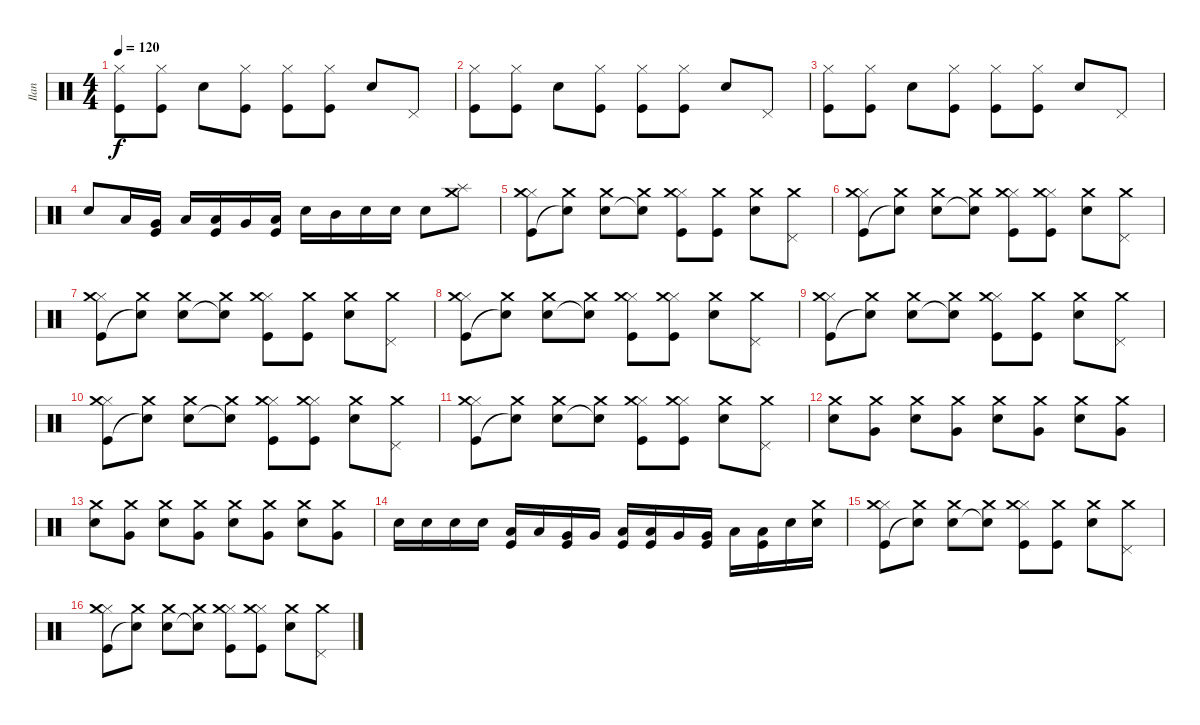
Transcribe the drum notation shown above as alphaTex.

\track ("Ilan" "Ilan") {instrument percussion}
\staff {score}
\articulation defaults
\ts (4 4)
\tempo 120
\clef neutral
\ks c
("Kick (hit)" "Hi-Hat (closed)").8{dy f} ("Kick (hit)" "Hi-Hat (closed)").8 "Electric Snare (hit)".8 ("Kick (hit)" "Hi-Hat (closed)").8 ("Kick (hit)" "Hi-Hat (closed)").8 ("Kick (hit)" "Hi-Hat (closed)").8 "Electric Snare (hit)".8 "Pedal Hi-Hat (hit)".8 |
("Kick (hit)" "Hi-Hat (closed)").8 ("Kick (hit)" "Hi-Hat (closed)").8 "Electric Snare (hit)".8 ("Kick (hit)" "Hi-Hat (closed)").8 ("Kick (hit)" "Hi-Hat (closed)").8 ("Kick (hit)" "Hi-Hat (closed)").8 "Electric Snare (hit)".8 "Pedal Hi-Hat (hit)".8 |
("Kick (hit)" "Hi-Hat (closed)").8 ("Kick (hit)" "Hi-Hat (closed)").8 "Electric Snare (hit)".8 ("Kick (hit)" "Hi-Hat (closed)").8 ("Kick (hit)" "Hi-Hat (closed)").8 ("Kick (hit)" "Hi-Hat (closed)").8 "Electric Snare (hit)".8 "Pedal Hi-Hat (hit)".8 |
"Electric Snare (hit)".8 "Low Floor Tom (hit)".16 ("Very Low Tom (hit)" "Kick (hit)").16 "Low Tom (hit)".16 ("Low Tom (hit)" "Kick (hit)").16 "Very Low Tom (hit)".16 ("Low Floor Tom (hit)" "Kick (hit)").16 "Electric Snare (hit)".16 "Mid Tom (hit)".16 "Electric Snare (hit)".16 "Electric Snare (hit)".16 "Electric Snare (hit)".8 ("Crash medium (hit)" "Splash (hit)").8 |
("Kick (hit)" "Hi-Hat (closed)" "Crash medium (hit)").8 ("Snare (hit)"{t} "Crash medium (hit)").8 ("Electric Snare (hit)" "Crash medium (hit)").8 ("Snare (hit)"{t} "Crash medium (hit)").8 ("Kick (hit)" "Hi-Hat (closed)" "Crash medium (hit)").8 ("Kick (hit)" "Crash medium (hit)").8 ("Electric Snare (hit)" "Crash medium (hit)").8 ("Pedal Hi-Hat (hit)" "Crash medium (hit)").8 |
("Kick (hit)" "Hi-Hat (closed)" "Crash medium (hit)").8 ("Snare (hit)"{t} "Crash medium (hit)").8 ("Electric Snare (hit)" "Crash medium (hit)").8 ("Snare (hit)"{t} "Crash medium (hit)").8 ("Kick (hit)" "Hi-Hat (closed)" "Crash medium (hit)").8 ("Kick (hit)" "Hi-Hat (closed)" "Crash medium (hit)").8 ("Electric Snare (hit)" "Crash medium (hit)").8 ("Pedal Hi-Hat (hit)" "Crash medium (hit)").8 |
("Kick (hit)" "Hi-Hat (closed)" "Crash medium (hit)").8 ("Snare (hit)"{t} "Crash medium (hit)").8 ("Electric Snare (hit)" "Crash medium (hit)").8 ("Snare (hit)"{t} "Crash medium (hit)").8 ("Kick (hit)" "Hi-Hat (closed)" "Crash medium (hit)").8 ("Kick (hit)" "Crash medium (hit)").8 ("Electric Snare (hit)" "Crash medium (hit)").8 ("Pedal Hi-Hat (hit)" "Crash medium (hit)").8 |
("Kick (hit)" "Hi-Hat (closed)" "Crash medium (hit)").8 ("Snare (hit)"{t} "Crash medium (hit)").8 ("Electric Snare (hit)" "Crash medium (hit)").8 ("Snare (hit)"{t} "Crash medium (hit)").8 ("Kick (hit)" "Hi-Hat (closed)" "Crash medium (hit)").8 ("Kick (hit)" "Hi-Hat (closed)" "Crash medium (hit)").8 ("Electric Snare (hit)" "Crash medium (hit)").8 ("Pedal Hi-Hat (hit)" "Crash medium (hit)").8 |
("Kick (hit)" "Hi-Hat (closed)" "Crash medium (hit)").8 ("Snare (hit)"{t} "Crash medium (hit)").8 ("Electric Snare (hit)" "Crash medium (hit)").8 ("Snare (hit)"{t} "Crash medium (hit)").8 ("Kick (hit)" "Hi-Hat (closed)" "Crash medium (hit)").8 ("Kick (hit)" "Crash medium (hit)").8 ("Electric Snare (hit)" "Crash medium (hit)").8 ("Pedal Hi-Hat (hit)" "Crash medium (hit)").8 |
("Kick (hit)" "Hi-Hat (closed)" "Crash medium (hit)").8 ("Snare (hit)"{t} "Crash medium (hit)").8 ("Electric Snare (hit)" "Crash medium (hit)").8 ("Snare (hit)"{t} "Crash medium (hit)").8 ("Kick (hit)" "Hi-Hat (closed)" "Crash medium (hit)").8 ("Kick (hit)" "Hi-Hat (closed)" "Crash medium (hit)").8 ("Electric Snare (hit)" "Crash medium (hit)").8 ("Pedal Hi-Hat (hit)" "Crash medium (hit)").8 |
("Kick (hit)" "Hi-Hat (closed)" "Crash medium (hit)").8 ("Snare (hit)"{t} "Crash medium (hit)").8 ("Electric Snare (hit)" "Crash medium (hit)").8 ("Snare (hit)"{t} "Crash medium (hit)").8 ("Kick (hit)" "Hi-Hat (closed)" "Crash medium (hit)").8 ("Kick (hit)" "Hi-Hat (closed)" "Crash medium (hit)").8 ("Electric Snare (hit)" "Crash medium (hit)").8 ("Pedal Hi-Hat (hit)" "Crash medium (hit)").8 |
("Electric Snare (hit)" "Crash medium (hit)").8 ("Very Low Tom (hit)" "Crash medium (hit)").8 ("Electric Snare (hit)" "Crash medium (hit)").8 ("Very Low Tom (hit)" "Crash medium (hit)").8 ("Electric Snare (hit)" "Crash medium (hit)").8 ("Very Low Tom (hit)" "Crash medium (hit)").8 ("Electric Snare (hit)" "Crash medium (hit)").8 ("Very Low Tom (hit)" "Crash medium (hit)").8 |
("Electric Snare (hit)" "Crash medium (hit)").8 ("Very Low Tom (hit)" "Crash medium (hit)").8 ("Electric Snare (hit)" "Crash medium (hit)").8 ("Very Low Tom (hit)" "Crash medium (hit)").8 ("Electric Snare (hit)" "Crash medium (hit)").8 ("Very Low Tom (hit)" "Crash medium (hit)").8 ("Electric Snare (hit)" "Crash medium (hit)").8 ("Very Low Tom (hit)" "Crash medium (hit)").8 |
"Electric Snare (hit)".16 "Electric Snare (hit)".16 "Electric Snare (hit)".16 "Electric Snare (hit)".16 ("Low Floor Tom (hit)" "Kick (hit)").16 "Low Floor Tom (hit)".16 ("Very Low Tom (hit)" "Kick (hit)").16 "Very Low Tom (hit)".16 ("Low Tom (hit)" "Kick (hit)").16 ("Low Tom (hit)" "Kick (hit)").16 "Very Low Tom (hit)".16 ("Very Low Tom (hit)" "Kick (hit)").16 "Low Floor Tom (hit)".16 ("Low Floor Tom (hit)" "Kick (hit)").16 "Electric Snare (hit)".16 ("Electric Snare (hit)" "Crash medium (hit)").16 |
("Kick (hit)" "Hi-Hat (closed)" "Crash medium (hit)").8 ("Snare (hit)"{t} "Crash medium (hit)").8 ("Electric Snare (hit)" "Crash medium (hit)").8 ("Snare (hit)"{t} "Crash medium (hit)").8 ("Kick (hit)" "Hi-Hat (closed)" "Crash medium (hit)").8 ("Kick (hit)" "Crash medium (hit)").8 ("Electric Snare (hit)" "Crash medium (hit)").8 ("Pedal Hi-Hat (hit)" "Crash medium (hit)").8 |
("Kick (hit)" "Hi-Hat (closed)" "Crash medium (hit)").8 ("Snare (hit)"{t} "Crash medium (hit)").8 ("Electric Snare (hit)" "Crash medium (hit)").8 ("Snare (hit)"{t} "Crash medium (hit)").8 ("Kick (hit)" "Hi-Hat (closed)" "Crash medium (hit)").8 ("Kick (hit)" "Hi-Hat (closed)" "Crash medium (hit)").8 ("Electric Snare (hit)" "Crash medium (hit)").8 ("Pedal Hi-Hat (hit)" "Crash medium (hit)").8
